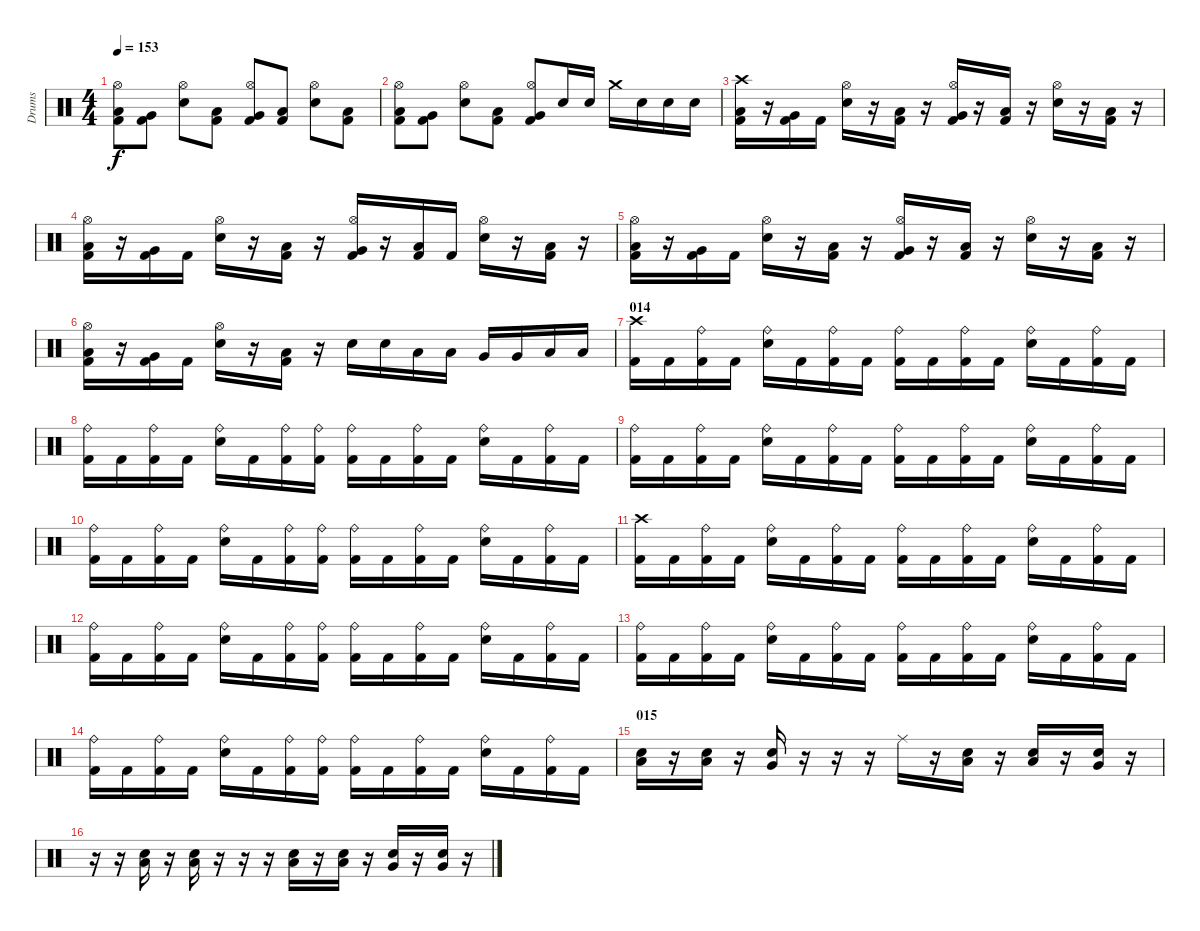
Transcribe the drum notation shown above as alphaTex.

\track ("Drums" "Drums") {instrument percussion}
\staff {score}
\articulation defaults
\ts (4 4)
\tempo 153
\clef neutral
\ks c
("Kick (hit) 2" "Low Tom (hit)" "Hi-Hat (open)").8{dy f} ("Kick (hit) 2" "Very Low Tom (hit)").8 ("Electric Snare (hit)" "Hi-Hat (open)").8 ("Kick (hit) 2" "Low Tom (hit)").8 ("Kick (hit) 2" "Very Low Tom (hit)" "Hi-Hat (open)").8 ("Kick (hit) 2" "Low Tom (hit)").8 ("Electric Snare (hit)" "Hi-Hat (open)").8 ("Kick (hit) 2" "Low Tom (hit)").8 |
("Kick (hit) 2" "Low Tom (hit)" "Hi-Hat (open)").8 ("Kick (hit) 2" "Very Low Tom (hit)").8 ("Electric Snare (hit)" "Hi-Hat (open)").8 ("Kick (hit) 2" "Low Tom (hit)").8 ("Kick (hit) 2" "Very Low Tom (hit)" "Hi-Hat (open)").8 "Electric Snare (hit)".16 "Electric Snare (hit)".16 "Crash medium (hit)".16 "Electric Snare (hit)".16 "Electric Snare (hit)".16 "Electric Snare (hit)".16 |
("Kick (hit) 2" "Low Tom (hit)" "Crash high (hit)").16 r.16 ("Kick (hit) 2" "Very Low Tom (hit)").16 "Kick (hit) 2".16 ("Electric Snare (hit)" "Hi-Hat (open)").16 r.16 ("Kick (hit) 2" "Low Tom (hit)").16 r.16 ("Kick (hit) 2" "Very Low Tom (hit)" "Hi-Hat (open)").16 r.16 ("Kick (hit) 2" "Low Tom (hit)").16 r.16 ("Electric Snare (hit)" "Hi-Hat (open)").16 r.16 ("Kick (hit) 2" "Low Tom (hit)").16 r.16 |
("Kick (hit) 2" "Low Tom (hit)" "Hi-Hat (open)").16 r.16 ("Kick (hit) 2" "Very Low Tom (hit)").16 "Kick (hit) 2".16 ("Electric Snare (hit)" "Hi-Hat (open)").16 r.16 ("Kick (hit) 2" "Low Tom (hit)").16 r.16 ("Kick (hit) 2" "Very Low Tom (hit)" "Hi-Hat (open)").16 r.16 ("Kick (hit) 2" "Low Tom (hit)").16 "Kick (hit) 2".16 ("Electric Snare (hit)" "Hi-Hat (open)").16 r.16 ("Kick (hit) 2" "Low Tom (hit)").16 r.16 |
("Kick (hit) 2" "Low Tom (hit)" "Hi-Hat (open)").16 r.16 ("Kick (hit) 2" "Very Low Tom (hit)").16 "Kick (hit) 2".16 ("Electric Snare (hit)" "Hi-Hat (open)").16 r.16 ("Kick (hit) 2" "Low Tom (hit)").16 r.16 ("Kick (hit) 2" "Very Low Tom (hit)" "Hi-Hat (open)").16 r.16 ("Kick (hit) 2" "Low Tom (hit)").16 r.16 ("Electric Snare (hit)" "Hi-Hat (open)").16 r.16 ("Kick (hit) 2" "Low Tom (hit)").16 r.16 |
("Kick (hit) 2" "Low Tom (hit)" "Hi-Hat (open)").16 r.16 ("Kick (hit) 2" "Very Low Tom (hit)").16 "Kick (hit) 2".16 ("Electric Snare (hit)" "Hi-Hat (open)").16 r.16 ("Kick (hit) 2" "Low Tom (hit)").16 r.16 "Electric Snare (hit)".16 "Electric Snare (hit)".16 "Low Tom (hit)".16 "Low Tom (hit)".16 "Very Low Tom (hit)".16 "Very Low Tom (hit)".16 "Low Floor Tom (hit)".16 "Low Floor Tom (hit)".16 |
\section ("" "014")
("Kick (hit) 2" "Crash high (hit)").16 "Kick (hit) 2".16 ("Kick (hit) 2" "Ride (bell)").16 "Kick (hit) 2".16 ("Electric Snare (hit)" "Ride (bell)").16 "Kick (hit) 2".16 ("Kick (hit) 2" "Ride (bell)").16 "Kick (hit) 2".16 ("Kick (hit) 2" "Ride (bell)").16 "Kick (hit) 2".16 ("Kick (hit) 2" "Ride (bell)").16 "Kick (hit) 2".16 ("Electric Snare (hit)" "Ride (bell)").16 "Kick (hit) 2".16 ("Kick (hit) 2" "Ride (bell)").16 "Kick (hit) 2".16 |
("Kick (hit) 2" "Ride (bell)").16 "Kick (hit) 2".16 ("Kick (hit) 2" "Ride (bell)").16 "Kick (hit) 2".16 ("Electric Snare (hit)" "Ride (bell)").16 "Kick (hit) 2".16 ("Kick (hit) 2" "Ride (bell)").16 ("Kick (hit) 2" "Ride (bell)").16 ("Kick (hit) 2" "Ride (bell)").16 "Kick (hit) 2".16 ("Kick (hit) 2" "Ride (bell)").16 "Kick (hit) 2".16 ("Electric Snare (hit)" "Ride (bell)").16 "Kick (hit) 2".16 ("Kick (hit) 2" "Ride (bell)").16 "Kick (hit) 2".16 |
("Kick (hit) 2" "Ride (bell)").16 "Kick (hit) 2".16 ("Kick (hit) 2" "Ride (bell)").16 "Kick (hit) 2".16 ("Electric Snare (hit)" "Ride (bell)").16 "Kick (hit) 2".16 ("Kick (hit) 2" "Ride (bell)").16 "Kick (hit) 2".16 ("Kick (hit) 2" "Ride (bell)").16 "Kick (hit) 2".16 ("Kick (hit) 2" "Ride (bell)").16 "Kick (hit) 2".16 ("Electric Snare (hit)" "Ride (bell)").16 "Kick (hit) 2".16 ("Kick (hit) 2" "Ride (bell)").16 "Kick (hit) 2".16 |
("Kick (hit) 2" "Ride (bell)").16 "Kick (hit) 2".16 ("Kick (hit) 2" "Ride (bell)").16 "Kick (hit) 2".16 ("Electric Snare (hit)" "Ride (bell)").16 "Kick (hit) 2".16 ("Kick (hit) 2" "Ride (bell)").16 ("Kick (hit) 2" "Ride (bell)").16 ("Kick (hit) 2" "Ride (bell)").16 "Kick (hit) 2".16 ("Kick (hit) 2" "Ride (bell)").16 "Kick (hit) 2".16 ("Electric Snare (hit)" "Ride (bell)").16 "Kick (hit) 2".16 ("Kick (hit) 2" "Ride (bell)").16 "Kick (hit) 2".16 |
("Kick (hit) 2" "Crash high (hit)").16 "Kick (hit) 2".16 ("Kick (hit) 2" "Ride (bell)").16 "Kick (hit) 2".16 ("Electric Snare (hit)" "Ride (bell)").16 "Kick (hit) 2".16 ("Kick (hit) 2" "Ride (bell)").16 "Kick (hit) 2".16 ("Kick (hit) 2" "Ride (bell)").16 "Kick (hit) 2".16 ("Kick (hit) 2" "Ride (bell)").16 "Kick (hit) 2".16 ("Electric Snare (hit)" "Ride (bell)").16 "Kick (hit) 2".16 ("Kick (hit) 2" "Ride (bell)").16 "Kick (hit) 2".16 |
("Kick (hit) 2" "Ride (bell)").16 "Kick (hit) 2".16 ("Kick (hit) 2" "Ride (bell)").16 "Kick (hit) 2".16 ("Electric Snare (hit)" "Ride (bell)").16 "Kick (hit) 2".16 ("Kick (hit) 2" "Ride (bell)").16 ("Kick (hit) 2" "Ride (bell)").16 ("Kick (hit) 2" "Ride (bell)").16 "Kick (hit) 2".16 ("Kick (hit) 2" "Ride (bell)").16 "Kick (hit) 2".16 ("Electric Snare (hit)" "Ride (bell)").16 "Kick (hit) 2".16 ("Kick (hit) 2" "Ride (bell)").16 "Kick (hit) 2".16 |
("Kick (hit) 2" "Ride (bell)").16 "Kick (hit) 2".16 ("Kick (hit) 2" "Ride (bell)").16 "Kick (hit) 2".16 ("Electric Snare (hit)" "Ride (bell)").16 "Kick (hit) 2".16 ("Kick (hit) 2" "Ride (bell)").16 "Kick (hit) 2".16 ("Kick (hit) 2" "Ride (bell)").16 "Kick (hit) 2".16 ("Kick (hit) 2" "Ride (bell)").16 "Kick (hit) 2".16 ("Electric Snare (hit)" "Ride (bell)").16 "Kick (hit) 2".16 ("Kick (hit) 2" "Ride (bell)").16 "Kick (hit) 2".16 |
("Kick (hit) 2" "Ride (bell)").16 "Kick (hit) 2".16 ("Kick (hit) 2" "Ride (bell)").16 "Kick (hit) 2".16 ("Electric Snare (hit)" "Ride (bell)").16 "Kick (hit) 2".16 ("Kick (hit) 2" "Ride (bell)").16 ("Kick (hit) 2" "Ride (bell)").16 ("Kick (hit) 2" "Ride (bell)").16 "Kick (hit) 2".16 ("Kick (hit) 2" "Ride (bell)").16 "Kick (hit) 2".16 ("Electric Snare (hit)" "Ride (bell)").16 "Kick (hit) 2".16 ("Kick (hit) 2" "Ride (bell)").16 "Kick (hit) 2".16 |
\section ("" "015")
("Low Tom (hit)" "Electric Snare (hit)").16 r.16 ("Low Tom (hit)" "Electric Snare (hit)").16 r.16 ("Very Low Tom (hit)" "Electric Snare (hit)").16 r.16 r.16 r.16 "Ride (middle)".16 r.16 ("Low Tom (hit)" "Electric Snare (hit)").16 r.16 ("Low Tom (hit)" "Electric Snare (hit)").16 r.16 ("Very Low Tom (hit)" "Electric Snare (hit)").16 r.16 |
r.16 r.16 ("Low Tom (hit)" "Electric Snare (hit)").16 r.16 ("Low Tom (hit)" "Electric Snare (hit)").16 r.16 r.16 r.16 ("Low Tom (hit)" "Electric Snare (hit)").16 r.16 ("Low Tom (hit)" "Electric Snare (hit)").16 r.16 ("Very Low Tom (hit)" "Electric Snare (hit)").16 r.16 ("Very Low Tom (hit)" "Electric Snare (hit)").16 r.16
